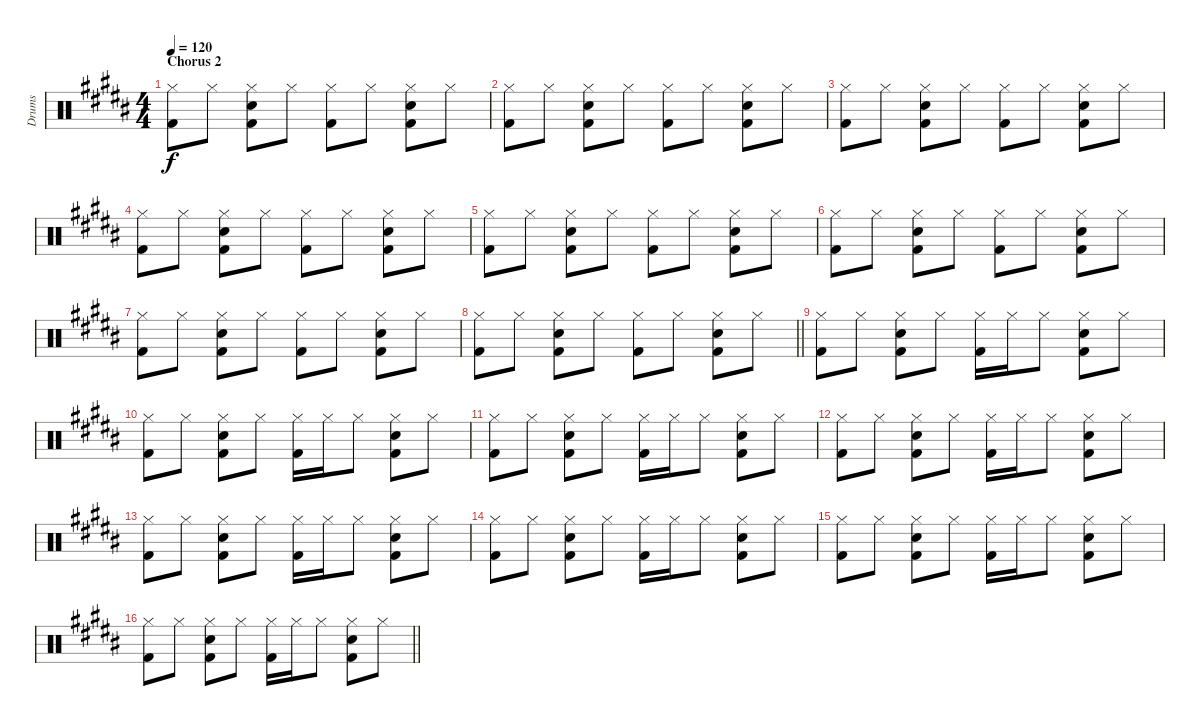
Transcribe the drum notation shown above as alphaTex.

\track ("Drums" "Drums") {instrument percussion}
\staff {score}
\articulation defaults
\ts (4 4)
\section ("" "Chorus 2")
\tempo 120
\clef neutral
\ks b
("Hi-Hat (closed)" "Kick (hit) 2").8{dy f} "Hi-Hat (closed)".8 ("Hi-Hat (closed)" "Kick (hit) 2" "Snare (hit) 2").8 "Hi-Hat (closed)".8 ("Hi-Hat (closed)" "Kick (hit) 2").8 "Hi-Hat (closed)".8 ("Hi-Hat (closed)" "Kick (hit) 2" "Snare (hit) 2").8 "Hi-Hat (closed)".8 |
("Hi-Hat (closed)" "Kick (hit) 2").8 "Hi-Hat (closed)".8 ("Hi-Hat (closed)" "Kick (hit) 2" "Snare (hit) 2").8 "Hi-Hat (closed)".8 ("Hi-Hat (closed)" "Kick (hit) 2").8 "Hi-Hat (closed)".8 ("Hi-Hat (closed)" "Kick (hit) 2" "Snare (hit) 2").8 "Hi-Hat (closed)".8 |
("Hi-Hat (closed)" "Kick (hit) 2").8 "Hi-Hat (closed)".8 ("Hi-Hat (closed)" "Kick (hit) 2" "Snare (hit) 2").8 "Hi-Hat (closed)".8 ("Hi-Hat (closed)" "Kick (hit) 2").8 "Hi-Hat (closed)".8 ("Hi-Hat (closed)" "Kick (hit) 2" "Snare (hit) 2").8 "Hi-Hat (closed)".8 |
("Hi-Hat (closed)" "Kick (hit) 2").8 "Hi-Hat (closed)".8 ("Hi-Hat (closed)" "Kick (hit) 2" "Snare (hit) 2").8 "Hi-Hat (closed)".8 ("Hi-Hat (closed)" "Kick (hit) 2").8 "Hi-Hat (closed)".8 ("Hi-Hat (closed)" "Kick (hit) 2" "Snare (hit) 2").8 "Hi-Hat (closed)".8 |
("Hi-Hat (closed)" "Kick (hit) 2").8 "Hi-Hat (closed)".8 ("Hi-Hat (closed)" "Kick (hit) 2" "Snare (hit) 2").8 "Hi-Hat (closed)".8 ("Hi-Hat (closed)" "Kick (hit) 2").8 "Hi-Hat (closed)".8 ("Hi-Hat (closed)" "Kick (hit) 2" "Snare (hit) 2").8 "Hi-Hat (closed)".8 |
("Hi-Hat (closed)" "Kick (hit) 2").8 "Hi-Hat (closed)".8 ("Hi-Hat (closed)" "Kick (hit) 2" "Snare (hit) 2").8 "Hi-Hat (closed)".8 ("Hi-Hat (closed)" "Kick (hit) 2").8 "Hi-Hat (closed)".8 ("Hi-Hat (closed)" "Kick (hit) 2" "Snare (hit) 2").8 "Hi-Hat (closed)".8 |
("Hi-Hat (closed)" "Kick (hit) 2").8 "Hi-Hat (closed)".8 ("Hi-Hat (closed)" "Kick (hit) 2" "Snare (hit) 2").8 "Hi-Hat (closed)".8 ("Hi-Hat (closed)" "Kick (hit) 2").8 "Hi-Hat (closed)".8 ("Hi-Hat (closed)" "Kick (hit) 2" "Snare (hit) 2").8 "Hi-Hat (closed)".8 |
\barLineRight lightlight
("Hi-Hat (closed)" "Kick (hit) 2").8 "Hi-Hat (closed)".8 ("Hi-Hat (closed)" "Kick (hit) 2" "Snare (hit) 2").8 "Hi-Hat (closed)".8 ("Hi-Hat (closed)" "Kick (hit) 2").8 "Hi-Hat (closed)".8 ("Hi-Hat (closed)" "Kick (hit) 2" "Snare (hit) 2").8 "Hi-Hat (closed)".8 |
("Hi-Hat (closed)" "Kick (hit) 2").8 "Hi-Hat (closed)".8 ("Hi-Hat (closed)" "Snare (hit) 2" "Kick (hit) 2").8 "Hi-Hat (closed)".8 ("Kick (hit) 2" "Hi-Hat (closed)").16 "Hi-Hat (closed)".16 "Hi-Hat (closed)".8 ("Hi-Hat (closed)" "Snare (hit) 2" "Kick (hit) 2").8 "Hi-Hat (closed)".8 |
("Hi-Hat (closed)" "Kick (hit) 2").8 "Hi-Hat (closed)".8 ("Hi-Hat (closed)" "Snare (hit) 2" "Kick (hit) 2").8 "Hi-Hat (closed)".8 ("Kick (hit) 2" "Hi-Hat (closed)").16 "Hi-Hat (closed)".16 "Hi-Hat (closed)".8 ("Hi-Hat (closed)" "Snare (hit) 2" "Kick (hit) 2").8 "Hi-Hat (closed)".8 |
("Hi-Hat (closed)" "Kick (hit) 2").8 "Hi-Hat (closed)".8 ("Hi-Hat (closed)" "Snare (hit) 2" "Kick (hit) 2").8 "Hi-Hat (closed)".8 ("Kick (hit) 2" "Hi-Hat (closed)").16 "Hi-Hat (closed)".16 "Hi-Hat (closed)".8 ("Hi-Hat (closed)" "Snare (hit) 2" "Kick (hit) 2").8 "Hi-Hat (closed)".8 |
("Hi-Hat (closed)" "Kick (hit) 2").8 "Hi-Hat (closed)".8 ("Hi-Hat (closed)" "Snare (hit) 2" "Kick (hit) 2").8 "Hi-Hat (closed)".8 ("Kick (hit) 2" "Hi-Hat (closed)").16 "Hi-Hat (closed)".16 "Hi-Hat (closed)".8 ("Hi-Hat (closed)" "Snare (hit) 2" "Kick (hit) 2").8 "Hi-Hat (closed)".8 |
("Hi-Hat (closed)" "Kick (hit) 2").8 "Hi-Hat (closed)".8 ("Hi-Hat (closed)" "Snare (hit) 2" "Kick (hit) 2").8 "Hi-Hat (closed)".8 ("Kick (hit) 2" "Hi-Hat (closed)").16 "Hi-Hat (closed)".16 "Hi-Hat (closed)".8 ("Hi-Hat (closed)" "Snare (hit) 2" "Kick (hit) 2").8 "Hi-Hat (closed)".8 |
("Hi-Hat (closed)" "Kick (hit) 2").8 "Hi-Hat (closed)".8 ("Hi-Hat (closed)" "Snare (hit) 2" "Kick (hit) 2").8 "Hi-Hat (closed)".8 ("Kick (hit) 2" "Hi-Hat (closed)").16 "Hi-Hat (closed)".16 "Hi-Hat (closed)".8 ("Hi-Hat (closed)" "Snare (hit) 2" "Kick (hit) 2").8 "Hi-Hat (closed)".8 |
("Hi-Hat (closed)" "Kick (hit) 2").8 "Hi-Hat (closed)".8 ("Hi-Hat (closed)" "Snare (hit) 2" "Kick (hit) 2").8 "Hi-Hat (closed)".8 ("Kick (hit) 2" "Hi-Hat (closed)").16 "Hi-Hat (closed)".16 "Hi-Hat (closed)".8 ("Hi-Hat (closed)" "Snare (hit) 2" "Kick (hit) 2").8 "Hi-Hat (closed)".8 |
\barLineRight lightlight
("Hi-Hat (closed)" "Kick (hit) 2").8 "Hi-Hat (closed)".8 ("Hi-Hat (closed)" "Snare (hit) 2" "Kick (hit) 2").8 "Hi-Hat (closed)".8 ("Kick (hit) 2" "Hi-Hat (closed)").16 "Hi-Hat (closed)".16 "Hi-Hat (closed)".8 ("Hi-Hat (closed)" "Snare (hit) 2" "Kick (hit) 2").8 "Hi-Hat (closed)".8
